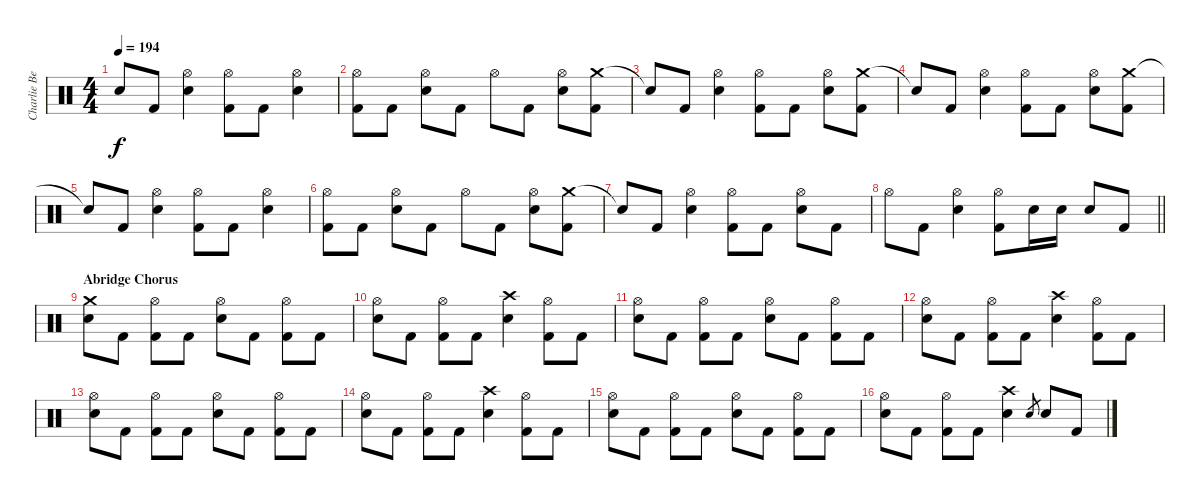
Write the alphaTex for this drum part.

\track ("Charlie Benate " "Charlie Be") {instrument percussion}
\staff {score}
\articulation defaults
\ts (4 4)
\tempo 194
\clef neutral
\ks c "Snare (hit)"{t}.8{dy f} "Kick (hit) 2".8
("Hi-Hat (open)" "Snare (hit) 2").4 ("Hi-Hat (open)" "Kick (hit) 2").8 "Kick (hit) 2".8 ("Hi-Hat (open)" "Snare (hit) 2").4 |
("Hi-Hat (open)" "Kick (hit) 2").8 "Kick (hit) 2".8 ("Hi-Hat (open)" "Snare (hit) 2").8 "Kick (hit) 2".8 "Hi-Hat (open)".8 "Kick (hit) 2".8 ("Hi-Hat (open)" "Snare (hit) 2").8 ("Crash medium (hit)" "Kick (hit) 2").8 |
"Snare (hit)"{t}.8 "Kick (hit) 2".8 ("Hi-Hat (open)" "Snare (hit) 2").4 ("Hi-Hat (open)" "Kick (hit) 2").8 "Kick (hit) 2".8 ("Hi-Hat (open)" "Snare (hit) 2").8 ("Crash medium (hit)" "Kick (hit) 2").8 |
"Snare (hit)"{t}.8 "Kick (hit) 2".8 ("Hi-Hat (open)" "Snare (hit) 2").4 ("Hi-Hat (open)" "Kick (hit) 2").8 "Kick (hit) 2".8 ("Hi-Hat (open)" "Snare (hit) 2").8 ("Crash medium (hit)" "Kick (hit) 2").8 |
"Snare (hit)"{t}.8 "Kick (hit) 2".8 ("Hi-Hat (open)" "Snare (hit) 2").4 ("Hi-Hat (open)" "Kick (hit) 2").8 "Kick (hit) 2".8 ("Hi-Hat (open)" "Snare (hit) 2").4 |
("Hi-Hat (open)" "Kick (hit) 2").8 "Kick (hit) 2".8 ("Hi-Hat (open)" "Snare (hit) 2").8 "Kick (hit) 2".8 "Hi-Hat (open)".8 "Kick (hit) 2".8 ("Hi-Hat (open)" "Snare (hit) 2").8 ("Crash medium (hit)" "Kick (hit) 2").8 |
"Snare (hit)"{t}.8 "Kick (hit) 2".8 ("Hi-Hat (open)" "Snare (hit) 2").4 ("Hi-Hat (open)" "Kick (hit) 2").8 "Kick (hit) 2".8 ("Hi-Hat (open)" "Snare (hit) 2").8 "Kick (hit) 2".8 |
\barLineRight lightlight "Hi-Hat (open)".8 "Kick (hit) 2".8
("Hi-Hat (open)" "Snare (hit) 2").4 ("Hi-Hat (open)" "Kick (hit) 2").8 "Snare (hit) 2".16 "Snare (hit) 2".16 "Snare (hit) 2".8 "Kick (hit) 2".8 |
\section ("" "Abridge Chorus")
("Crash medium (hit)" "Snare (hit) 2").8 "Kick (hit) 2".8 ("Hi-Hat (open)" "Kick (hit) 2").8 "Kick (hit) 2".8 ("Hi-Hat (open)" "Snare (hit) 2").8 "Kick (hit) 2".8 ("Hi-Hat (open)" "Kick (hit) 2").8 "Kick (hit) 2".8 |
("Hi-Hat (open)" "Snare (hit) 2").8 "Kick (hit) 2".8 ("Hi-Hat (open)" "Kick (hit) 2").8 "Kick (hit) 2".8 ("Crash high (hit)" "Snare (hit) 2").4 ("Hi-Hat (open)" "Kick (hit) 2").8 "Kick (hit) 2".8 |
("Hi-Hat (open)" "Snare (hit) 2").8 "Kick (hit) 2".8 ("Hi-Hat (open)" "Kick (hit) 2").8 "Kick (hit) 2".8 ("Hi-Hat (open)" "Snare (hit) 2").8 "Kick (hit) 2".8 ("Hi-Hat (open)" "Kick (hit) 2").8 "Kick (hit) 2".8 |
("Hi-Hat (open)" "Snare (hit) 2").8 "Kick (hit) 2".8 ("Hi-Hat (open)" "Kick (hit) 2").8 "Kick (hit) 2".8 ("Crash high (hit)" "Snare (hit) 2").4 ("Hi-Hat (open)" "Kick (hit) 2").8 "Kick (hit) 2".8 |
("Hi-Hat (open)" "Snare (hit) 2").8 "Kick (hit) 2".8 ("Hi-Hat (open)" "Kick (hit) 2").8 "Kick (hit) 2".8 ("Hi-Hat (open)" "Snare (hit) 2").8 "Kick (hit) 2".8 ("Hi-Hat (open)" "Kick (hit) 2").8 "Kick (hit) 2".8 |
("Hi-Hat (open)" "Snare (hit) 2").8 "Kick (hit) 2".8 ("Hi-Hat (open)" "Kick (hit) 2").8 "Kick (hit) 2".8 ("Crash high (hit)" "Snare (hit) 2").4 ("Hi-Hat (open)" "Kick (hit) 2").8 "Kick (hit) 2".8 |
("Hi-Hat (open)" "Snare (hit) 2").8 "Kick (hit) 2".8 ("Hi-Hat (open)" "Kick (hit) 2").8 "Kick (hit) 2".8 ("Hi-Hat (open)" "Snare (hit) 2").8 "Kick (hit) 2".8 ("Hi-Hat (open)" "Kick (hit) 2").8 "Kick (hit) 2".8 |
("Hi-Hat (open)" "Snare (hit) 2").8 "Kick (hit) 2".8 ("Hi-Hat (open)" "Kick (hit) 2").8 "Kick (hit) 2".8 ("Crash high (hit)" "Snare (hit) 2").4 "Snare (hit) 2".8{gr} "Snare (hit) 2".8 "Kick (hit) 2".8
